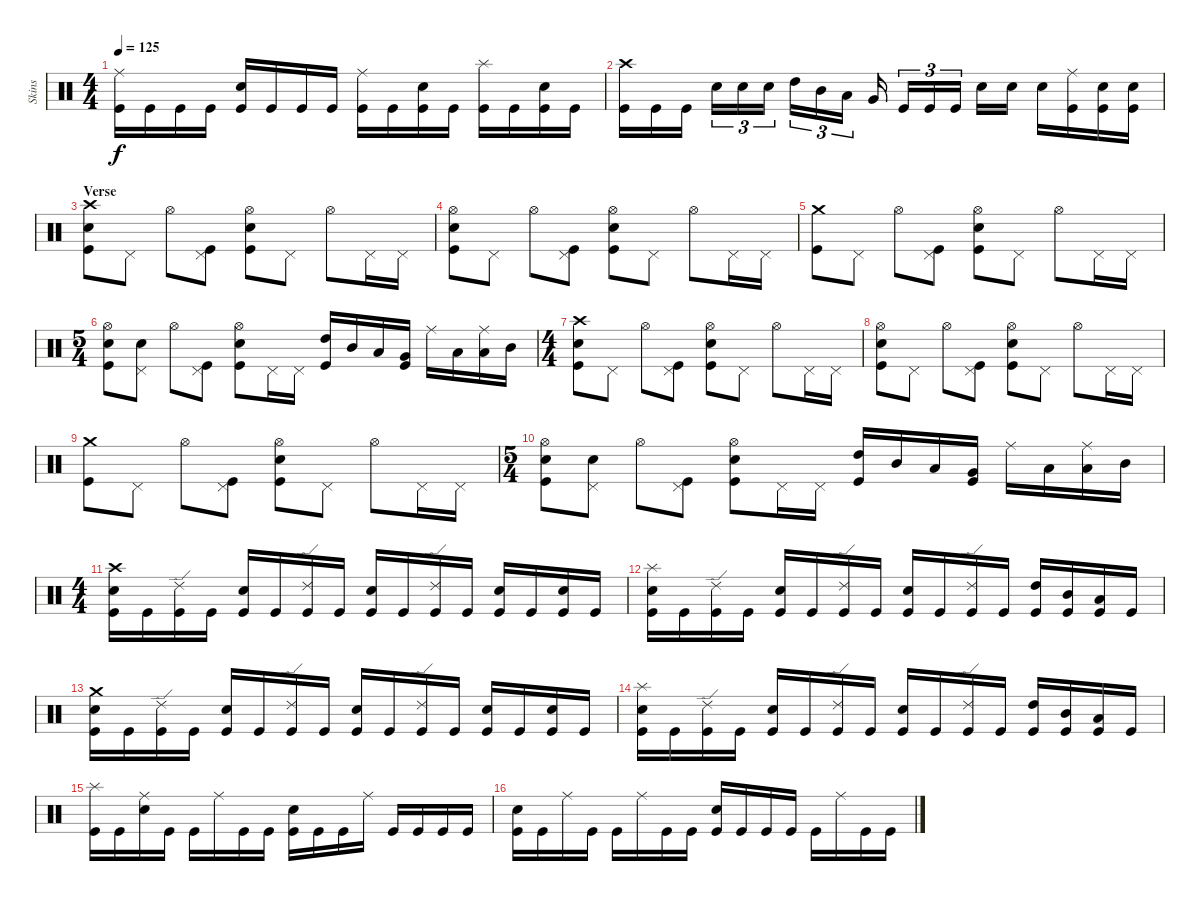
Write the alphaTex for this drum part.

\track ("Skins" "Skins") {instrument percussion}
\staff {score}
\articulation defaults
\ts (4 4)
\tempo 125
\clef neutral
\ks c
("Ride (middle)" "Kick (hit)").16{dy f} "Kick (hit)".16 "Kick (hit)".16 "Kick (hit)".16 ("Electric Snare (hit)" "Kick (hit)").16 "Kick (hit)".16 "Kick (hit)".16 "Kick (hit)".16 ("Ride (middle)" "Kick (hit)").16 "Kick (hit)".16 ("Snare (hit) 2" "Kick (hit)").16 "Kick (hit)".16 ("Splash (hit)" "Kick (hit)").16 "Kick (hit)".16 ("Snare (hit) 2" "Kick (hit)").16 "Kick (hit)".16 |
("Crash high (hit)" "Kick (hit)").16 "Kick (hit)".16 "Kick (hit)".16 "Electric Snare (hit)".16{tu (3 2)} "Electric Snare (hit)".16{tu (3 2)} "Electric Snare (hit)".16{tu (3 2)} "High Tom (hit)".16{tu (3 2)} "Mid Tom (hit)".16{tu (3 2)} "Low Tom (hit)".16{tu (3 2)} "Very Low Tom (hit)".16 "Kick (hit)".16{tu (3 2)} "Kick (hit)".16{tu (3 2)} "Kick (hit)".16{tu (3 2)} "Snare (hit) 2".16 "Snare (hit) 2".16 "Snare (hit) 2".16 ("Ride (middle)" "Kick (hit)").16 ("Snare (hit) 2" "Kick (hit)").16 ("Snare (hit) 2" "Kick (hit)").16 |
\section ("" "Verse")
("Crash high (hit)" "Snare (hit) 2" "Kick (hit)").8 "Pedal Hi-Hat (hit)".8 "Hi-Hat (open)".8 ("Pedal Hi-Hat (hit)" "Kick (hit)").8 ("Hi-Hat (open)" "Electric Snare (hit)" "Kick (hit)").8 "Pedal Hi-Hat (hit)".8 "Hi-Hat (open)".8 "Pedal Hi-Hat (hit)".16 "Pedal Hi-Hat (hit)".16 |
("Hi-Hat (open)" "Snare (hit) 2" "Kick (hit)").8 "Pedal Hi-Hat (hit)".8 "Hi-Hat (open)".8 ("Pedal Hi-Hat (hit)" "Kick (hit)").8 ("Hi-Hat (open)" "Electric Snare (hit)" "Kick (hit)").8 "Pedal Hi-Hat (hit)".8 "Hi-Hat (open)".8 "Pedal Hi-Hat (hit)".16 "Pedal Hi-Hat (hit)".16 |
("Crash medium (hit)" "Kick (hit)").8 "Pedal Hi-Hat (hit)".8 "Hi-Hat (open)".8 ("Pedal Hi-Hat (hit)" "Kick (hit)").8 ("Hi-Hat (open)" "Electric Snare (hit)" "Kick (hit)").8 "Pedal Hi-Hat (hit)".8 "Hi-Hat (open)".8 "Pedal Hi-Hat (hit)".16 "Pedal Hi-Hat (hit)".16 |
\ts (5 4)
("Hi-Hat (open)" "Snare (hit) 2" "Kick (hit)").8 ("Pedal Hi-Hat (hit)" "Snare (hit) 2").8 "Hi-Hat (open)".8 ("Pedal Hi-Hat (hit)" "Kick (hit)").8 ("Hi-Hat (open)" "Electric Snare (hit)" "Kick (hit)").8 "Pedal Hi-Hat (hit)".16 "Pedal Hi-Hat (hit)".16 ("High Tom (hit)" "Kick (hit)").16 "Mid Tom (hit)".16 "Low Tom (hit)".16 ("Very Low Tom (hit)" "Kick (hit)").16 "Ride (middle)".16 "Low Floor Tom (hit)".16 ("Ride (middle)" "Low Tom (hit)").16 "Mid Tom (hit)".16 |
\ts (4 4)
("Crash high (hit)" "Snare (hit) 2" "Kick (hit)").8 "Pedal Hi-Hat (hit)".8 "Hi-Hat (open)".8 ("Pedal Hi-Hat (hit)" "Kick (hit)").8 ("Hi-Hat (open)" "Electric Snare (hit)" "Kick (hit)").8 "Pedal Hi-Hat (hit)".8 "Hi-Hat (open)".8 "Pedal Hi-Hat (hit)".16 "Pedal Hi-Hat (hit)".16 |
("Hi-Hat (open)" "Snare (hit) 2" "Kick (hit)").8 "Pedal Hi-Hat (hit)".8 "Hi-Hat (open)".8 ("Pedal Hi-Hat (hit)" "Kick (hit)").8 ("Hi-Hat (open)" "Electric Snare (hit)" "Kick (hit)").8 "Pedal Hi-Hat (hit)".8 "Hi-Hat (open)".8 "Pedal Hi-Hat (hit)".16 "Pedal Hi-Hat (hit)".16 |
("Crash medium (hit)" "Kick (hit)").8 "Pedal Hi-Hat (hit)".8 "Hi-Hat (open)".8 ("Pedal Hi-Hat (hit)" "Kick (hit)").8 ("Hi-Hat (open)" "Electric Snare (hit)" "Kick (hit)").8 "Pedal Hi-Hat (hit)".8 "Hi-Hat (open)".8 "Pedal Hi-Hat (hit)".16 "Pedal Hi-Hat (hit)".16 |
\ts (5 4)
("Hi-Hat (open)" "Snare (hit) 2" "Kick (hit)").8 ("Pedal Hi-Hat (hit)" "Snare (hit) 2").8 "Hi-Hat (open)".8 ("Pedal Hi-Hat (hit)" "Kick (hit)").8 ("Hi-Hat (open)" "Electric Snare (hit)" "Kick (hit)").8 "Pedal Hi-Hat (hit)".16 "Pedal Hi-Hat (hit)".16 ("High Tom (hit)" "Kick (hit)").16 "Mid Tom (hit)".16 "Low Tom (hit)".16 ("Very Low Tom (hit)" "Kick (hit)").16 "Ride (middle)".16 "Low Floor Tom (hit)".16 ("Ride (middle)" "Low Tom (hit)").16 "Mid Tom (hit)".16 |
\ts (4 4)
("Crash high (hit)" "Electric Snare (hit)" "Kick (hit)").16 "Kick (hit)".16 ("Ride (edge) 2" "Kick (hit)").16 "Kick (hit)".16 ("Electric Snare (hit)" "Kick (hit)").16 "Kick (hit)".16 ("Ride (edge) 2" "Kick (hit)").16 "Kick (hit)".16 ("Electric Snare (hit)" "Kick (hit)").16 "Kick (hit)".16 ("Ride (edge) 2" "Kick (hit)").16 "Kick (hit)".16 ("Snare (hit) 2" "Kick (hit)").16 "Kick (hit)".16 ("Snare (hit) 2" "Kick (hit)").16 "Kick (hit)".16 |
("Splash (hit)" "Electric Snare (hit)" "Kick (hit)").16 "Kick (hit)".16 ("Ride (edge) 2" "Kick (hit)").16 "Kick (hit)".16 ("Electric Snare (hit)" "Kick (hit)").16 "Kick (hit)".16 ("Ride (edge) 2" "Kick (hit)").16 "Kick (hit)".16 ("Electric Snare (hit)" "Kick (hit)").16 "Kick (hit)".16 ("Ride (edge) 2" "Kick (hit)").16 "Kick (hit)".16 ("High Tom (hit)" "Kick (hit)").16 ("Mid Tom (hit)" "Kick (hit)").16 ("Low Tom (hit)" "Kick (hit)").16 "Kick (hit)".16 |
("Crash medium (hit)" "Electric Snare (hit)" "Kick (hit)").16 "Kick (hit)".16 ("Ride (edge) 2" "Kick (hit)").16 "Kick (hit)".16 ("Electric Snare (hit)" "Kick (hit)").16 "Kick (hit)".16 ("Ride (edge) 2" "Kick (hit)").16 "Kick (hit)".16 ("Electric Snare (hit)" "Kick (hit)").16 "Kick (hit)".16 ("Ride (edge) 2" "Kick (hit)").16 "Kick (hit)".16 ("Snare (hit) 2" "Kick (hit)").16 "Kick (hit)".16 ("Snare (hit) 2" "Kick (hit)").16 "Kick (hit)".16 |
("Splash (hit)" "Electric Snare (hit)" "Kick (hit)").16 "Kick (hit)".16 ("Ride (edge) 2" "Kick (hit)").16 "Kick (hit)".16 ("Electric Snare (hit)" "Kick (hit)").16 "Kick (hit)".16 ("Ride (edge) 2" "Kick (hit)").16 "Kick (hit)".16 ("Electric Snare (hit)" "Kick (hit)").16 "Kick (hit)".16 ("Ride (edge) 2" "Kick (hit)").16 "Kick (hit)".16 ("High Tom (hit)" "Kick (hit)").16 ("Mid Tom (hit)" "Kick (hit)").16 ("Low Tom (hit)" "Kick (hit)").16 "Kick (hit)".16 |
("Splash (hit)" "Kick (hit)").16 "Kick (hit)".16 ("Ride (middle)" "Electric Snare (hit)").16 "Kick (hit)".16 "Kick (hit)".16 "Ride (middle)".16 "Kick (hit)".16 "Kick (hit)".16 ("Electric Snare (hit)" "Kick (hit)").16 "Kick (hit)".16 "Kick (hit)".16 "Ride (middle)".16 "Kick (hit)".16 "Kick (hit)".16 "Kick (hit)".16 "Kick (hit)".16 |
("Electric Snare (hit)" "Kick (hit)").16 "Kick (hit)".16 "Ride (middle)".16 "Kick (hit)".16 "Kick (hit)".16 "Ride (middle)".16 "Kick (hit)".16 "Kick (hit)".16 ("Electric Snare (hit)" "Kick (hit)").16 "Kick (hit)".16 "Kick (hit)".16 "Kick (hit)".16 "Kick (hit)".16 "Ride (middle)".16 "Kick (hit)".16 "Kick (hit)".16
